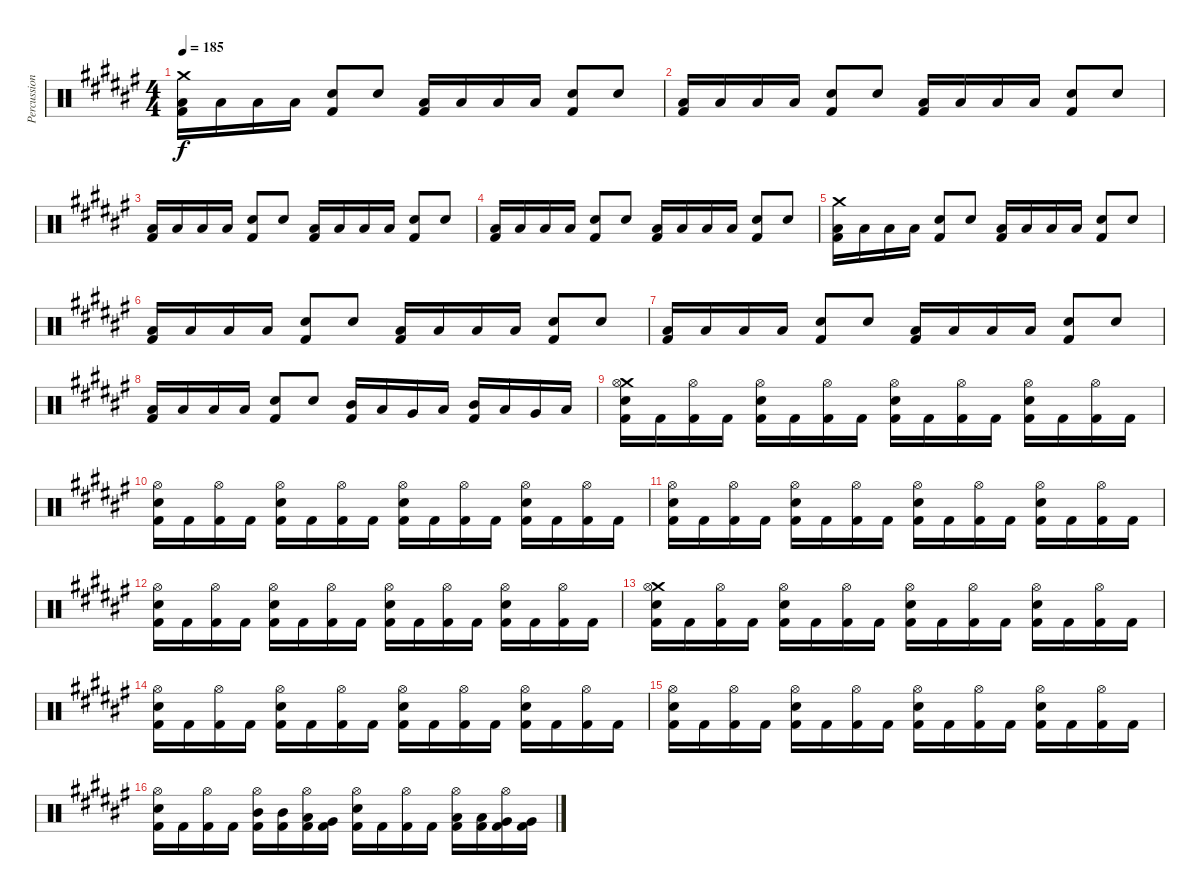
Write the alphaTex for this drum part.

\track ("Percussion" "Percussion") {instrument percussion}
\staff {score}
\articulation defaults
\ts (4 4)
\tempo 185
\clef neutral
\ks d#minor
("Crash medium (hit)" "Low Floor Tom (hit)" "Kick (hit) 2").16{dy f} "Low Floor Tom (hit)".16 "Low Floor Tom (hit)".16 "Low Floor Tom (hit)".16 ("Electric Snare (hit)" "Kick (hit) 2").8 "Electric Snare (hit)".8 ("Low Floor Tom (hit)" "Kick (hit) 2").16 "Low Floor Tom (hit)".16 "Low Floor Tom (hit)".16 "Low Floor Tom (hit)".16 ("Electric Snare (hit)" "Kick (hit) 2").8 "Electric Snare (hit)".8 |
("Low Floor Tom (hit)" "Kick (hit) 2").16 "Low Floor Tom (hit)".16 "Low Floor Tom (hit)".16 "Low Floor Tom (hit)".16 ("Electric Snare (hit)" "Kick (hit) 2").8 "Electric Snare (hit)".8 ("Low Floor Tom (hit)" "Kick (hit) 2").16 "Low Floor Tom (hit)".16 "Low Floor Tom (hit)".16 "Low Floor Tom (hit)".16 ("Electric Snare (hit)" "Kick (hit) 2").8 "Electric Snare (hit)".8 |
("Low Floor Tom (hit)" "Kick (hit) 2").16 "Low Floor Tom (hit)".16 "Low Floor Tom (hit)".16 "Low Floor Tom (hit)".16 ("Electric Snare (hit)" "Kick (hit) 2").8 "Electric Snare (hit)".8 ("Low Floor Tom (hit)" "Kick (hit) 2").16 "Low Floor Tom (hit)".16 "Low Floor Tom (hit)".16 "Low Floor Tom (hit)".16 ("Electric Snare (hit)" "Kick (hit) 2").8 "Electric Snare (hit)".8 |
("Low Floor Tom (hit)" "Kick (hit) 2").16 "Low Floor Tom (hit)".16 "Low Floor Tom (hit)".16 "Low Floor Tom (hit)".16 ("Electric Snare (hit)" "Kick (hit) 2").8 "Electric Snare (hit)".8 ("Low Floor Tom (hit)" "Kick (hit) 2").16 "Low Floor Tom (hit)".16 "Low Floor Tom (hit)".16 "Low Floor Tom (hit)".16 ("Electric Snare (hit)" "Kick (hit) 2").8 "Electric Snare (hit)".8 |
("Crash medium (hit)" "Low Floor Tom (hit)" "Kick (hit) 2").16 "Low Floor Tom (hit)".16 "Low Floor Tom (hit)".16 "Low Floor Tom (hit)".16 ("Electric Snare (hit)" "Kick (hit) 2").8 "Electric Snare (hit)".8 ("Low Floor Tom (hit)" "Kick (hit) 2").16 "Low Floor Tom (hit)".16 "Low Floor Tom (hit)".16 "Low Floor Tom (hit)".16 ("Electric Snare (hit)" "Kick (hit) 2").8 "Electric Snare (hit)".8 |
("Low Floor Tom (hit)" "Kick (hit) 2").16 "Low Floor Tom (hit)".16 "Low Floor Tom (hit)".16 "Low Floor Tom (hit)".16 ("Electric Snare (hit)" "Kick (hit) 2").8 "Electric Snare (hit)".8 ("Low Floor Tom (hit)" "Kick (hit) 2").16 "Low Floor Tom (hit)".16 "Low Floor Tom (hit)".16 "Low Floor Tom (hit)".16 ("Electric Snare (hit)" "Kick (hit) 2").8 "Electric Snare (hit)".8 |
("Low Floor Tom (hit)" "Kick (hit) 2").16 "Low Floor Tom (hit)".16 "Low Floor Tom (hit)".16 "Low Floor Tom (hit)".16 ("Electric Snare (hit)" "Kick (hit) 2").8 "Electric Snare (hit)".8 ("Low Floor Tom (hit)" "Kick (hit) 2").16 "Low Floor Tom (hit)".16 "Low Floor Tom (hit)".16 "Low Floor Tom (hit)".16 ("Electric Snare (hit)" "Kick (hit) 2").8 "Electric Snare (hit)".8 |
("Low Floor Tom (hit)" "Kick (hit) 2").16 "Low Floor Tom (hit)".16 "Low Floor Tom (hit)".16 "Low Floor Tom (hit)".16 ("Electric Snare (hit)" "Kick (hit) 2").8 "Electric Snare (hit)".8 ("Mid Tom (hit)" "Kick (hit) 2").16 "Low Tom (hit)".16 "Very Low Tom (hit)".16 "Low Floor Tom (hit)".16 ("Mid Tom (hit)" "Kick (hit) 2").16 "Low Tom (hit)".16 "Very Low Tom (hit)".16 "Low Floor Tom (hit)".16 |
("Crash medium (hit)" "Hi-Hat (open)" "Electric Snare (hit)" "Kick (hit) 2").16 "Kick (hit) 2".16 ("Hi-Hat (open)" "Kick (hit) 2").16 "Kick (hit) 2".16 ("Hi-Hat (open)" "Electric Snare (hit)" "Kick (hit) 2").16 "Kick (hit) 2".16 ("Hi-Hat (open)" "Kick (hit) 2").16 "Kick (hit) 2".16 ("Hi-Hat (open)" "Electric Snare (hit)" "Kick (hit) 2").16 "Kick (hit) 2".16 ("Hi-Hat (open)" "Kick (hit) 2").16 "Kick (hit) 2".16 ("Hi-Hat (open)" "Electric Snare (hit)" "Kick (hit) 2").16 "Kick (hit) 2".16 ("Hi-Hat (open)" "Kick (hit) 2").16 "Kick (hit) 2".16 |
("Hi-Hat (open)" "Electric Snare (hit)" "Kick (hit) 2").16 "Kick (hit) 2".16 ("Hi-Hat (open)" "Kick (hit) 2").16 "Kick (hit) 2".16 ("Hi-Hat (open)" "Electric Snare (hit)" "Kick (hit) 2").16 "Kick (hit) 2".16 ("Hi-Hat (open)" "Kick (hit) 2").16 "Kick (hit) 2".16 ("Hi-Hat (open)" "Electric Snare (hit)" "Kick (hit) 2").16 "Kick (hit) 2".16 ("Hi-Hat (open)" "Kick (hit) 2").16 "Kick (hit) 2".16 ("Hi-Hat (open)" "Electric Snare (hit)" "Kick (hit) 2").16 "Kick (hit) 2".16 ("Hi-Hat (open)" "Kick (hit) 2").16 "Kick (hit) 2".16 |
("Hi-Hat (open)" "Electric Snare (hit)" "Kick (hit) 2").16 "Kick (hit) 2".16 ("Hi-Hat (open)" "Kick (hit) 2").16 "Kick (hit) 2".16 ("Hi-Hat (open)" "Electric Snare (hit)" "Kick (hit) 2").16 "Kick (hit) 2".16 ("Hi-Hat (open)" "Kick (hit) 2").16 "Kick (hit) 2".16 ("Hi-Hat (open)" "Electric Snare (hit)" "Kick (hit) 2").16 "Kick (hit) 2".16 ("Hi-Hat (open)" "Kick (hit) 2").16 "Kick (hit) 2".16 ("Hi-Hat (open)" "Electric Snare (hit)" "Kick (hit) 2").16 "Kick (hit) 2".16 ("Hi-Hat (open)" "Kick (hit) 2").16 "Kick (hit) 2".16 |
("Hi-Hat (open)" "Electric Snare (hit)" "Kick (hit) 2").16 "Kick (hit) 2".16 ("Hi-Hat (open)" "Kick (hit) 2").16 "Kick (hit) 2".16 ("Hi-Hat (open)" "Electric Snare (hit)" "Kick (hit) 2").16 "Kick (hit) 2".16 ("Hi-Hat (open)" "Kick (hit) 2").16 "Kick (hit) 2".16 ("Hi-Hat (open)" "Electric Snare (hit)" "Kick (hit) 2").16 "Kick (hit) 2".16 ("Hi-Hat (open)" "Kick (hit) 2").16 "Kick (hit) 2".16 ("Hi-Hat (open)" "Electric Snare (hit)" "Kick (hit) 2").16 "Kick (hit) 2".16 ("Hi-Hat (open)" "Kick (hit) 2").16 "Kick (hit) 2".16 |
("Crash medium (hit)" "Hi-Hat (open)" "Electric Snare (hit)" "Kick (hit) 2").16 "Kick (hit) 2".16 ("Hi-Hat (open)" "Kick (hit) 2").16 "Kick (hit) 2".16 ("Hi-Hat (open)" "Electric Snare (hit)" "Kick (hit) 2").16 "Kick (hit) 2".16 ("Hi-Hat (open)" "Kick (hit) 2").16 "Kick (hit) 2".16 ("Hi-Hat (open)" "Electric Snare (hit)" "Kick (hit) 2").16 "Kick (hit) 2".16 ("Hi-Hat (open)" "Kick (hit) 2").16 "Kick (hit) 2".16 ("Hi-Hat (open)" "Electric Snare (hit)" "Kick (hit) 2").16 "Kick (hit) 2".16 ("Hi-Hat (open)" "Kick (hit) 2").16 "Kick (hit) 2".16 |
("Hi-Hat (open)" "Electric Snare (hit)" "Kick (hit) 2").16 "Kick (hit) 2".16 ("Hi-Hat (open)" "Kick (hit) 2").16 "Kick (hit) 2".16 ("Hi-Hat (open)" "Electric Snare (hit)" "Kick (hit) 2").16 "Kick (hit) 2".16 ("Hi-Hat (open)" "Kick (hit) 2").16 "Kick (hit) 2".16 ("Hi-Hat (open)" "Electric Snare (hit)" "Kick (hit) 2").16 "Kick (hit) 2".16 ("Hi-Hat (open)" "Kick (hit) 2").16 "Kick (hit) 2".16 ("Hi-Hat (open)" "Electric Snare (hit)" "Kick (hit) 2").16 "Kick (hit) 2".16 ("Hi-Hat (open)" "Kick (hit) 2").16 "Kick (hit) 2".16 |
("Hi-Hat (open)" "Electric Snare (hit)" "Kick (hit) 2").16 "Kick (hit) 2".16 ("Hi-Hat (open)" "Kick (hit) 2").16 "Kick (hit) 2".16 ("Hi-Hat (open)" "Electric Snare (hit)" "Kick (hit) 2").16 "Kick (hit) 2".16 ("Hi-Hat (open)" "Kick (hit) 2").16 "Kick (hit) 2".16 ("Hi-Hat (open)" "Electric Snare (hit)" "Kick (hit) 2").16 "Kick (hit) 2".16 ("Hi-Hat (open)" "Kick (hit) 2").16 "Kick (hit) 2".16 ("Hi-Hat (open)" "Electric Snare (hit)" "Kick (hit) 2").16 "Kick (hit) 2".16 ("Hi-Hat (open)" "Kick (hit) 2").16 "Kick (hit) 2".16 |
("Hi-Hat (open)" "Electric Snare (hit)" "Kick (hit) 2").16 "Kick (hit) 2".16 ("Hi-Hat (open)" "Kick (hit) 2").16 "Kick (hit) 2".16 ("Hi-Hat (open)" "Mid Tom (hit)" "Kick (hit) 2").16 ("Mid Tom (hit)" "Kick (hit) 2").16 ("Hi-Hat (open)" "Low Tom (hit)" "Kick (hit) 2").16 ("Very Low Tom (hit)" "Kick (hit) 2").16 ("Hi-Hat (open)" "Electric Snare (hit)" "Kick (hit) 2").16 "Kick (hit) 2".16 ("Hi-Hat (open)" "Kick (hit) 2").16 "Kick (hit) 2".16 ("Hi-Hat (open)" "Low Tom (hit)" "Kick (hit) 2").16 ("Low Tom (hit)" "Kick (hit) 2").16 ("Hi-Hat (open)" "Very Low Tom (hit)" "Kick (hit) 2").16 ("Very Low Tom (hit)" "Kick (hit) 2").16
